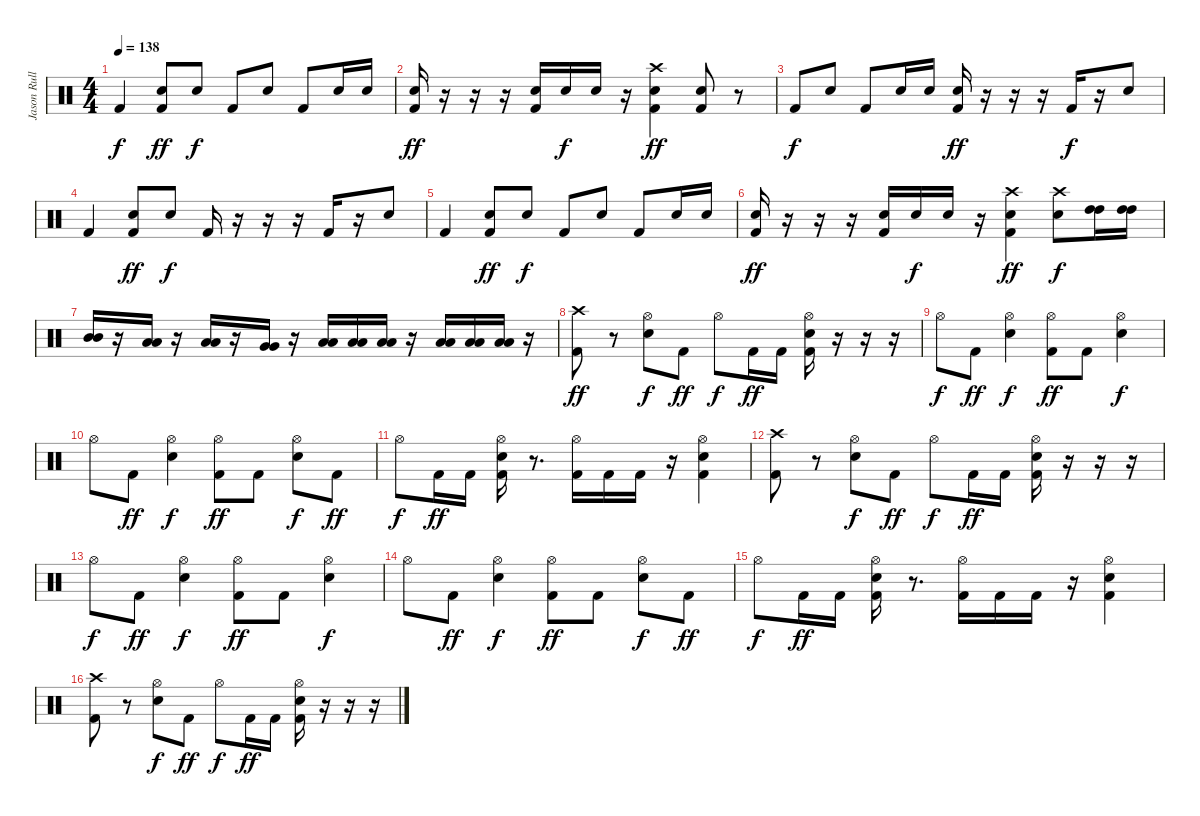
\track ("Jason Rullo" "Jason Rull") {instrument percussion}
\staff {score}
\articulation defaults
\ts (4 4)
\tempo 138
\clef neutral
\ks c "Kick (hit) 2".4{dy f}
("Kick (hit) 2" "Electric Snare (hit)").8{dy ff} "Electric Snare (hit)".8{dy f} "Kick (hit) 2".8 "Electric Snare (hit)".8 "Kick (hit) 2".8 "Electric Snare (hit)".16 "Electric Snare (hit)".16 |
("Kick (hit) 2" "Electric Snare (hit)").16{dy ff} r.16 r.16 r.16 ("Kick (hit) 2" "Electric Snare (hit)").16 "Electric Snare (hit)".16{dy f} "Electric Snare (hit)".16 r.16 ("Kick (hit) 2" "Electric Snare (hit)" "Crash high (hit)").4{dy ff} ("Kick (hit) 2" "Electric Snare (hit)").8 r.8 |
"Kick (hit) 2".8{dy f} "Electric Snare (hit)".8 "Kick (hit) 2".8 "Electric Snare (hit)".16 "Electric Snare (hit)".16 ("Kick (hit) 2" "Electric Snare (hit)").16{dy ff} r.16 r.16 r.16 "Kick (hit) 2".16{dy f} r.16 "Electric Snare (hit)".8 |
"Kick (hit) 2".4 ("Kick (hit) 2" "Electric Snare (hit)").8{dy ff} "Electric Snare (hit)".8{dy f} "Kick (hit) 2".16 r.16 r.16 r.16 "Kick (hit) 2".16 r.16 "Electric Snare (hit)".8 |
"Kick (hit) 2".4 ("Kick (hit) 2" "Electric Snare (hit)").8{dy ff} "Electric Snare (hit)".8{dy f} "Kick (hit) 2".8 "Electric Snare (hit)".8 "Kick (hit) 2".8 "Electric Snare (hit)".16 "Electric Snare (hit)".16 |
("Kick (hit) 2" "Electric Snare (hit)").16{dy ff} r.16 r.16 r.16 ("Kick (hit) 2" "Electric Snare (hit)").16 "Electric Snare (hit)".16{dy f} "Electric Snare (hit)".16 r.16 ("Kick (hit) 2" "Electric Snare (hit)" "Crash high (hit)").4{dy ff} ("Electric Snare (hit)" "Crash high (hit)").8{dy f} ("High Tom (hit)" "High Tom (hit)").16 ("High Tom (hit)" "High Tom (hit)").16 |
("Mid Tom (hit)" "Mid Tom (hit)").16 r.16 ("Low Tom (hit)" "Low Tom (hit)").16 r.16 ("Low Tom (hit)" "Low Tom (hit)").16 r.16 ("Very Low Tom (hit)" "Very Low Tom (hit)").16 r.16 ("Low Tom (hit)" "Low Tom (hit)").16 ("Low Tom (hit)" "Low Tom (hit)").16 ("Low Tom (hit)" "Low Tom (hit)").16 r.16 ("Low Tom (hit)" "Low Tom (hit)").16 ("Low Tom (hit)" "Low Tom (hit)").16 ("Low Tom (hit)" "Low Tom (hit)").16 r.16 |
("Kick (hit) 2" "Crash high (hit)").8{dy ff} r.8 ("Electric Snare (hit)" "Hi-Hat (open)").8{dy f} "Kick (hit) 2".8{dy ff} "Hi-Hat (open)".8{dy f} "Kick (hit) 2".16{dy ff} "Kick (hit) 2".16 ("Kick (hit) 2" "Electric Snare (hit)" "Hi-Hat (open)").16 r.16 r.16 r.16 |
"Hi-Hat (open)".8{dy f} "Kick (hit) 2".8{dy ff} ("Electric Snare (hit)" "Hi-Hat (open)").4{dy f} ("Kick (hit) 2" "Hi-Hat (open)").8{dy ff} "Kick (hit) 2".8 ("Electric Snare (hit)" "Hi-Hat (open)").4{dy f} |
"Hi-Hat (open)".8 "Kick (hit) 2".8{dy ff} ("Electric Snare (hit)" "Hi-Hat (open)").4{dy f} ("Kick (hit) 2" "Hi-Hat (open)").8{dy ff} "Kick (hit) 2".8 ("Electric Snare (hit)" "Hi-Hat (open)").8{dy f} "Kick (hit) 2".8{dy ff} |
"Hi-Hat (open)".8{dy f} "Kick (hit) 2".16{dy ff} "Kick (hit) 2".16 ("Kick (hit) 2" "Electric Snare (hit)" "Hi-Hat (open)").16 r.8{d} ("Kick (hit) 2" "Hi-Hat (open)").16 "Kick (hit) 2".16 "Kick (hit) 2".16 r.16 ("Kick (hit) 2" "Electric Snare (hit)" "Hi-Hat (open)").4 |
("Kick (hit) 2" "Crash high (hit)").8 r.8 ("Electric Snare (hit)" "Hi-Hat (open)").8{dy f} "Kick (hit) 2".8{dy ff} "Hi-Hat (open)".8{dy f} "Kick (hit) 2".16{dy ff} "Kick (hit) 2".16 ("Kick (hit) 2" "Electric Snare (hit)" "Hi-Hat (open)").16 r.16 r.16 r.16 |
"Hi-Hat (open)".8{dy f} "Kick (hit) 2".8{dy ff} ("Electric Snare (hit)" "Hi-Hat (open)").4{dy f} ("Kick (hit) 2" "Hi-Hat (open)").8{dy ff} "Kick (hit) 2".8 ("Electric Snare (hit)" "Hi-Hat (open)").4{dy f} |
"Hi-Hat (open)".8 "Kick (hit) 2".8{dy ff} ("Electric Snare (hit)" "Hi-Hat (open)").4{dy f} ("Kick (hit) 2" "Hi-Hat (open)").8{dy ff} "Kick (hit) 2".8 ("Electric Snare (hit)" "Hi-Hat (open)").8{dy f} "Kick (hit) 2".8{dy ff} |
"Hi-Hat (open)".8{dy f} "Kick (hit) 2".16{dy ff} "Kick (hit) 2".16 ("Kick (hit) 2" "Electric Snare (hit)" "Hi-Hat (open)").16 r.8{d} ("Kick (hit) 2" "Hi-Hat (open)").16 "Kick (hit) 2".16 "Kick (hit) 2".16 r.16 ("Kick (hit) 2" "Electric Snare (hit)" "Hi-Hat (open)").4 |
("Kick (hit) 2" "Crash high (hit)").8 r.8 ("Electric Snare (hit)" "Hi-Hat (open)").8{dy f} "Kick (hit) 2".8{dy ff} "Hi-Hat (open)".8{dy f} "Kick (hit) 2".16{dy ff} "Kick (hit) 2".16 ("Kick (hit) 2" "Electric Snare (hit)" "Hi-Hat (open)").16 r.16 r.16 r.16
